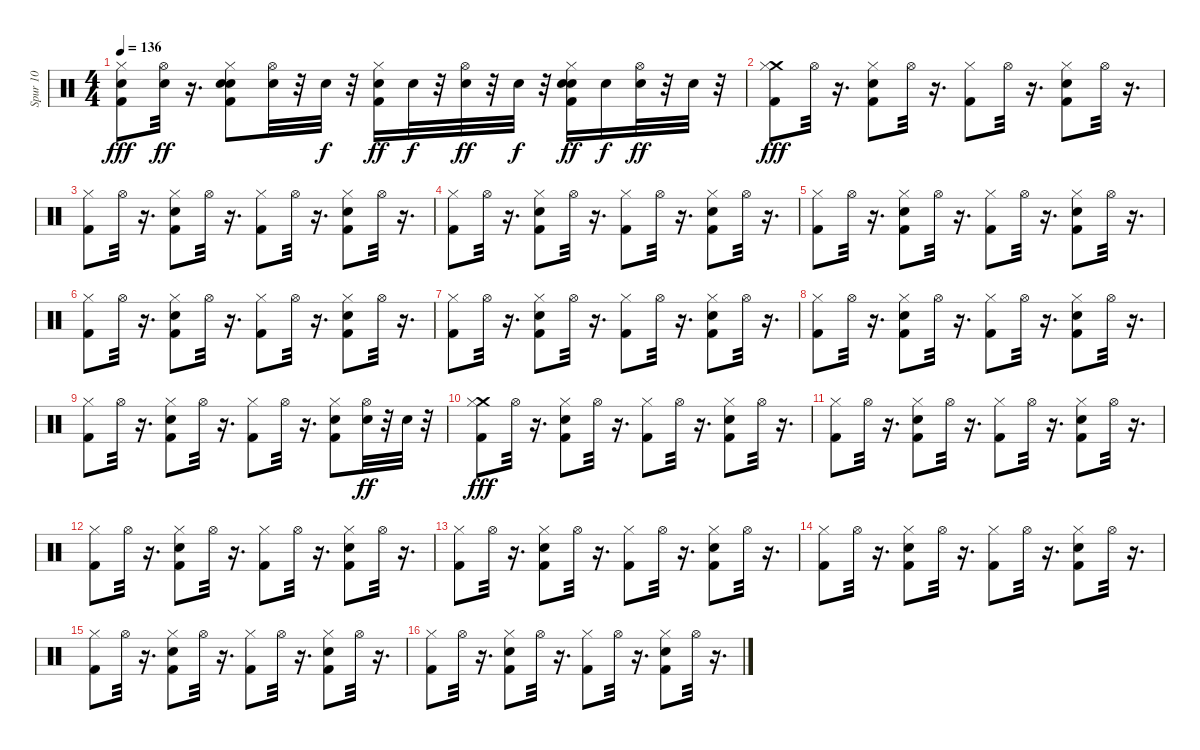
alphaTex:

\track ("Spur 10" "Spur 10") {instrument percussion}
\staff {score}
\articulation defaults
\ts (4 4)
\tempo 136
\clef neutral
\ks c
("Hi-Hat (closed)" "Kick (hit) 2" "Snare (hit) 2").8{dy fff} ("Hi-Hat (open)" "Snare (hit) 2").32{dy ff} r.16{d} ("Kick (hit) 2" "Hi-Hat (closed)" "Snare (hit) 2" "Snare (hit) 2").8 ("Hi-Hat (open)" "Snare (hit) 2").32 r.32 "Snare (hit) 2".32{dy f} r.32 ("Kick (hit) 2" "Hi-Hat (closed)" "Snare (hit) 2").16{dy ff} "Snare (hit) 2".32{dy f} r.32 ("Hi-Hat (open)" "Snare (hit) 2").32{dy ff} r.32 "Snare (hit) 2".32{dy f} r.32 ("Snare (hit) 2" "Hi-Hat (closed)" "Kick (hit) 2" "Snare (hit) 2").16{dy ff} "Snare (hit) 2".16{dy f} ("Hi-Hat (open)" "Snare (hit) 2").32{dy ff} r.32 "Snare (hit) 2".32 r.32 |
("Crash medium (hit)" "Hi-Hat (closed)" "Kick (hit) 2").8{dy fff} "Hi-Hat (open)".32 r.16{d} ("Hi-Hat (closed)" "Kick (hit) 2" "Snare (hit) 2").8 "Hi-Hat (open)".32 r.16{d} ("Hi-Hat (closed)" "Kick (hit) 2").8 "Hi-Hat (open)".32 r.16{d} ("Kick (hit) 2" "Snare (hit) 2" "Hi-Hat (closed)").8 "Hi-Hat (open)".32 r.16{d} |
("Hi-Hat (closed)" "Kick (hit) 2").8 "Hi-Hat (open)".32 r.16{d} ("Hi-Hat (closed)" "Kick (hit) 2" "Snare (hit) 2").8 "Hi-Hat (open)".32 r.16{d} ("Hi-Hat (closed)" "Kick (hit) 2").8 "Hi-Hat (open)".32 r.16{d} ("Snare (hit) 2" "Hi-Hat (closed)" "Kick (hit) 2").8 "Hi-Hat (open)".32 r.16{d} |
("Hi-Hat (closed)" "Kick (hit) 2").8 "Hi-Hat (open)".32 r.16{d} ("Snare (hit) 2" "Hi-Hat (closed)" "Kick (hit) 2").8 "Hi-Hat (open)".32 r.16{d} ("Hi-Hat (closed)" "Kick (hit) 2").8 "Hi-Hat (open)".32 r.16{d} ("Kick (hit) 2" "Snare (hit) 2" "Hi-Hat (closed)").8 "Hi-Hat (open)".32 r.16{d} |
("Hi-Hat (closed)" "Kick (hit) 2").8 "Hi-Hat (open)".32 r.16{d} ("Hi-Hat (closed)" "Kick (hit) 2" "Snare (hit) 2").8 "Hi-Hat (open)".32 r.16{d} ("Hi-Hat (closed)" "Kick (hit) 2").8 "Hi-Hat (open)".32 r.16{d} ("Hi-Hat (closed)" "Kick (hit) 2" "Snare (hit) 2").8 "Hi-Hat (open)".32 r.16{d} |
("Hi-Hat (closed)" "Kick (hit) 2").8 "Hi-Hat (open)".32 r.16{d} ("Snare (hit) 2" "Hi-Hat (closed)" "Kick (hit) 2").8 "Hi-Hat (open)".32 r.16{d} ("Hi-Hat (closed)" "Kick (hit) 2").8 "Hi-Hat (open)".32 r.16{d} ("Snare (hit) 2" "Hi-Hat (closed)" "Kick (hit) 2").8 "Hi-Hat (open)".32 r.16{d} |
("Hi-Hat (closed)" "Kick (hit) 2").8 "Hi-Hat (open)".32 r.16{d} ("Snare (hit) 2" "Hi-Hat (closed)" "Kick (hit) 2").8 "Hi-Hat (open)".32 r.16{d} ("Hi-Hat (closed)" "Kick (hit) 2").8 "Hi-Hat (open)".32 r.16{d} ("Snare (hit) 2" "Hi-Hat (closed)" "Kick (hit) 2").8 "Hi-Hat (open)".32 r.16{d} |
("Hi-Hat (closed)" "Kick (hit) 2").8 "Hi-Hat (open)".32 r.16{d} ("Hi-Hat (closed)" "Kick (hit) 2" "Snare (hit) 2").8 "Hi-Hat (open)".32 r.16{d} ("Hi-Hat (closed)" "Kick (hit) 2").8 "Hi-Hat (open)".32 r.16{d} ("Hi-Hat (closed)" "Kick (hit) 2" "Snare (hit) 2").8 "Hi-Hat (open)".32 r.16{d} |
("Hi-Hat (closed)" "Kick (hit) 2").8 "Hi-Hat (open)".32 r.16{d} ("Snare (hit) 2" "Hi-Hat (closed)" "Kick (hit) 2").8 "Hi-Hat (open)".32 r.16{d} ("Hi-Hat (closed)" "Kick (hit) 2").8 "Hi-Hat (open)".32 r.16{d} ("Snare (hit) 2" "Hi-Hat (closed)" "Kick (hit) 2").8 ("Hi-Hat (open)" "Snare (hit) 2").32{dy ff} r.32 "Snare (hit) 2".32 r.32 |
("Crash medium (hit)" "Hi-Hat (closed)" "Kick (hit) 2").8{dy fff} "Hi-Hat (open)".32 r.16{d} ("Hi-Hat (closed)" "Kick (hit) 2" "Snare (hit) 2").8 "Hi-Hat (open)".32 r.16{d} ("Hi-Hat (closed)" "Kick (hit) 2").8 "Hi-Hat (open)".32 r.16{d} ("Hi-Hat (closed)" "Kick (hit) 2" "Snare (hit) 2").8 "Hi-Hat (open)".32 r.16{d} |
("Hi-Hat (closed)" "Kick (hit) 2").8 "Hi-Hat (open)".32 r.16{d} ("Hi-Hat (closed)" "Kick (hit) 2" "Snare (hit) 2").8 "Hi-Hat (open)".32 r.16{d} ("Hi-Hat (closed)" "Kick (hit) 2").8 "Hi-Hat (open)".32 r.16{d} ("Hi-Hat (closed)" "Kick (hit) 2" "Snare (hit) 2").8 "Hi-Hat (open)".32 r.16{d} |
("Hi-Hat (closed)" "Kick (hit) 2").8 "Hi-Hat (open)".32 r.16{d} ("Kick (hit) 2" "Snare (hit) 2" "Hi-Hat (closed)").8 "Hi-Hat (open)".32 r.16{d} ("Hi-Hat (closed)" "Kick (hit) 2").8 "Hi-Hat (open)".32 r.16{d} ("Kick (hit) 2" "Snare (hit) 2" "Hi-Hat (closed)").8 "Hi-Hat (open)".32 r.16{d} |
("Hi-Hat (closed)" "Kick (hit) 2").8 "Hi-Hat (open)".32 r.16{d} ("Kick (hit) 2" "Snare (hit) 2" "Hi-Hat (closed)").8 "Hi-Hat (open)".32 r.16{d} ("Hi-Hat (closed)" "Kick (hit) 2").8 "Hi-Hat (open)".32 r.16{d} ("Kick (hit) 2" "Snare (hit) 2" "Hi-Hat (closed)").8 "Hi-Hat (open)".32 r.16{d} |
("Hi-Hat (closed)" "Kick (hit) 2").8 "Hi-Hat (open)".32 r.16{d} ("Hi-Hat (closed)" "Kick (hit) 2" "Snare (hit) 2").8 "Hi-Hat (open)".32 r.16{d} ("Hi-Hat (closed)" "Kick (hit) 2").8 "Hi-Hat (open)".32 r.16{d} ("Hi-Hat (closed)" "Kick (hit) 2" "Snare (hit) 2").8 "Hi-Hat (open)".32 r.16{d} |
("Hi-Hat (closed)" "Kick (hit) 2").8 "Hi-Hat (open)".32 r.16{d} ("Hi-Hat (closed)" "Kick (hit) 2" "Snare (hit) 2").8 "Hi-Hat (open)".32 r.16{d} ("Hi-Hat (closed)" "Kick (hit) 2").8 "Hi-Hat (open)".32 r.16{d} ("Hi-Hat (closed)" "Kick (hit) 2" "Snare (hit) 2").8 "Hi-Hat (open)".32 r.16{d} |
("Hi-Hat (closed)" "Kick (hit) 2").8 "Hi-Hat (open)".32 r.16{d} ("Hi-Hat (closed)" "Kick (hit) 2" "Snare (hit) 2").8 "Hi-Hat (open)".32 r.16{d} ("Hi-Hat (closed)" "Kick (hit) 2").8 "Hi-Hat (open)".32 r.16{d} ("Hi-Hat (closed)" "Kick (hit) 2" "Snare (hit) 2").8 "Hi-Hat (open)".32 r.16{d}
